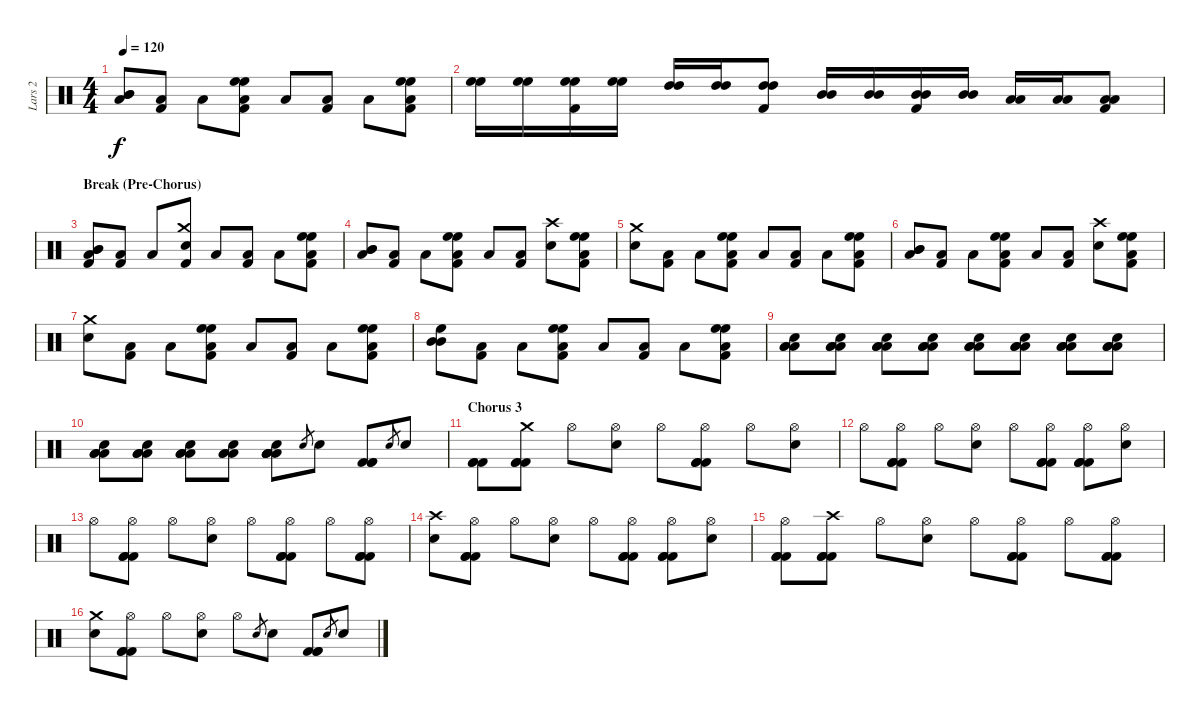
\track ("Lars 2" "Lars 2") {instrument percussion}
\staff {score}
\articulation defaults
\ts (4 4)
\tempo 120
\clef neutral
\ks c
("Mid Tom (hit)" "Low Tom (hit)" "Mid Tom (hit)").8{dy f} ("Low Tom (hit)" "Kick (hit) 2").8 "Low Tom (hit)".8 ("High Floor Tom (hit)" "Low Tom (hit)" "High Floor Tom (hit)" "Kick (hit) 2").8 "Low Tom (hit)".8 ("Low Tom (hit)" "Kick (hit) 2").8 "Low Tom (hit)".8 ("High Floor Tom (hit)" "Low Tom (hit)" "High Floor Tom (hit)" "Kick (hit) 2").8 |
("High Floor Tom (hit)" "High Floor Tom (hit)").16 ("High Floor Tom (hit)" "High Floor Tom (hit)").16 ("High Floor Tom (hit)" "High Floor Tom (hit)" "Kick (hit) 2").16 ("High Floor Tom (hit)" "High Floor Tom (hit)").16 ("High Tom (hit)" "High Tom (hit)").16 ("High Tom (hit)" "High Tom (hit)").16 ("High Tom (hit)" "High Tom (hit)" "Kick (hit) 2").8 ("Mid Tom (hit)" "Mid Tom (hit)").16 ("Mid Tom (hit)" "Mid Tom (hit)").16 ("Mid Tom (hit)" "Mid Tom (hit)" "Kick (hit) 2").16 ("Mid Tom (hit)" "Mid Tom (hit)").16 ("Low Tom (hit)" "Low Tom (hit)").16 ("Low Tom (hit)" "Low Tom (hit)").16 ("Low Floor Tom (hit)" "Low Floor Tom (hit)" "Kick (hit) 2").8 |
\section ("" "Break (Pre-Chorus)")
("Mid Tom (hit)" "Low Tom (hit)" "Mid Tom (hit)" "Kick (hit) 2").8 ("Low Tom (hit)" "Kick (hit) 2").8 "Low Tom (hit)".8 ("Crash medium (hit)" "Electric Snare (hit)" "Kick (hit) 2").8 "Low Tom (hit)".8 ("Low Tom (hit)" "Kick (hit) 2").8 "Low Tom (hit)".8 ("High Floor Tom (hit)" "Low Tom (hit)" "High Floor Tom (hit)" "Kick (hit) 2").8 |
("Mid Tom (hit)" "Low Tom (hit)" "Mid Tom (hit)").8 ("Low Tom (hit)" "Kick (hit) 2").8 "Low Tom (hit)".8 ("High Floor Tom (hit)" "Low Tom (hit)" "High Floor Tom (hit)" "Kick (hit) 2").8 "Low Tom (hit)".8 ("Low Tom (hit)" "Kick (hit) 2").8 ("Crash high (hit)" "Electric Snare (hit)").8 ("High Floor Tom (hit)" "Low Tom (hit)" "High Floor Tom (hit)" "Kick (hit) 2").8 |
("Crash medium (hit)" "Electric Snare (hit)").8 ("Low Tom (hit)" "Kick (hit) 2").8 "Low Tom (hit)".8 ("High Floor Tom (hit)" "Low Tom (hit)" "High Floor Tom (hit)" "Kick (hit) 2").8 "Low Tom (hit)".8 ("Low Tom (hit)" "Kick (hit) 2").8 "Low Tom (hit)".8 ("High Floor Tom (hit)" "Low Tom (hit)" "High Floor Tom (hit)" "Kick (hit) 2").8 |
("Mid Tom (hit)" "Low Tom (hit)" "Mid Tom (hit)").8 ("Low Tom (hit)" "Kick (hit) 2").8 "Low Tom (hit)".8 ("High Floor Tom (hit)" "Low Tom (hit)" "High Floor Tom (hit)" "Kick (hit) 2").8 "Low Tom (hit)".8 ("Low Tom (hit)" "Kick (hit) 2").8 ("Crash high (hit)" "Electric Snare (hit)").8 ("High Floor Tom (hit)" "Low Tom (hit)" "High Floor Tom (hit)" "Kick (hit) 2").8 |
("Crash medium (hit)" "Electric Snare (hit)").8 ("Low Tom (hit)" "Kick (hit) 2").8 "Low Tom (hit)".8 ("High Floor Tom (hit)" "Low Tom (hit)" "High Floor Tom (hit)" "Kick (hit) 2").8 "Low Tom (hit)".8 ("Low Tom (hit)" "Kick (hit) 2").8 "Low Tom (hit)".8 ("High Floor Tom (hit)" "Low Tom (hit)" "High Floor Tom (hit)" "Kick (hit) 2").8 |
("Mid Tom (hit)" "High Floor Tom (hit)" "Mid Tom (hit)").8 ("Low Tom (hit)" "Kick (hit) 2").8 "Low Tom (hit)".8 ("High Floor Tom (hit)" "Low Tom (hit)" "High Floor Tom (hit)" "Kick (hit) 2").8 "Low Tom (hit)".8 ("Low Tom (hit)" "Kick (hit) 2").8 "Low Tom (hit)".8 ("High Floor Tom (hit)" "Low Tom (hit)" "High Floor Tom (hit)" "Kick (hit) 2").8 |
("Low Tom (hit)" "Low Tom (hit)" "Low Tom (hit)" "Electric Snare (hit)").8{volume 8} ("Low Tom (hit)" "Low Tom (hit)" "Low Tom (hit)" "Electric Snare (hit)").8{volume 16} ("Low Tom (hit)" "Low Tom (hit)" "Low Tom (hit)" "Electric Snare (hit)").8 ("Low Tom (hit)" "Low Tom (hit)" "Low Tom (hit)" "Electric Snare (hit)").8 ("Low Tom (hit)" "Low Tom (hit)" "Low Tom (hit)" "Electric Snare (hit)").8 ("Low Tom (hit)" "Low Tom (hit)" "Low Tom (hit)" "Electric Snare (hit)").8 ("Low Tom (hit)" "Low Tom (hit)" "Low Tom (hit)" "Electric Snare (hit)").8 ("Low Tom (hit)" "Low Tom (hit)" "Low Tom (hit)" "Electric Snare (hit)").8 |
("Low Tom (hit)" "Low Tom (hit)" "Low Tom (hit)" "Electric Snare (hit)").8 ("Low Tom (hit)" "Low Tom (hit)" "Low Tom (hit)" "Electric Snare (hit)").8 ("Low Tom (hit)" "Low Tom (hit)" "Low Tom (hit)" "Electric Snare (hit)").8 ("Low Tom (hit)" "Low Tom (hit)" "Low Tom (hit)" "Electric Snare (hit)").8 ("Low Tom (hit)" "Low Tom (hit)" "Low Tom (hit)" "Electric Snare (hit)" "Low Tom (hit)" "Low Tom (hit)").8 "Electric Snare (hit)".8{gr} "Electric Snare (hit)".8 ("Kick (hit) 2" "Kick (hit) 2" "Kick (hit) 2").8 "Electric Snare (hit)".8{gr} "Electric Snare (hit)".8 |
\section ("" "Chorus 3")
("Kick (hit) 2" "Kick (hit) 2" "Kick (hit) 2").8 ("Crash medium (hit)" "Kick (hit) 2" "Kick (hit) 2" "Kick (hit) 2").8 "Hi-Hat (open)".8 ("Hi-Hat (open)" "Electric Snare (hit)").8 "Hi-Hat (open)".8 ("Hi-Hat (open)" "Kick (hit) 2" "Kick (hit) 2" "Kick (hit) 2").8 "Hi-Hat (open)".8 ("Hi-Hat (open)" "Electric Snare (hit)").8 |
"Hi-Hat (open)".8 ("Hi-Hat (open)" "Kick (hit) 2" "Kick (hit) 2" "Kick (hit) 2").8 "Hi-Hat (open)".8 ("Hi-Hat (open)" "Electric Snare (hit)").8 "Hi-Hat (open)".8 ("Hi-Hat (open)" "Kick (hit) 2" "Kick (hit) 2" "Kick (hit) 2").8 ("Hi-Hat (open)" "Kick (hit) 2" "Kick (hit) 2" "Kick (hit) 2").8 ("Hi-Hat (open)" "Electric Snare (hit)").8 |
"Hi-Hat (open)".8 ("Hi-Hat (open)" "Kick (hit) 2" "Kick (hit) 2" "Kick (hit) 2").8 "Hi-Hat (open)".8 ("Hi-Hat (open)" "Electric Snare (hit)").8 "Hi-Hat (open)".8 ("Hi-Hat (open)" "Kick (hit) 2" "Kick (hit) 2" "Kick (hit) 2").8 "Hi-Hat (open)".8 ("Hi-Hat (open)" "Kick (hit) 2" "Kick (hit) 2" "Kick (hit) 2").8 |
("Crash high (hit)" "Electric Snare (hit)").8 ("Hi-Hat (open)" "Kick (hit) 2" "Kick (hit) 2" "Kick (hit) 2").8 "Hi-Hat (open)".8 ("Hi-Hat (open)" "Electric Snare (hit)").8 "Hi-Hat (open)".8 ("Hi-Hat (open)" "Kick (hit) 2" "Kick (hit) 2" "Kick (hit) 2").8 ("Hi-Hat (open)" "Kick (hit) 2" "Kick (hit) 2" "Kick (hit) 2").8 ("Hi-Hat (open)" "Electric Snare (hit)").8 |
("Hi-Hat (open)" "Kick (hit) 2" "Kick (hit) 2" "Kick (hit) 2").8 ("Crash high (hit)" "Kick (hit) 2" "Kick (hit) 2" "Kick (hit) 2").8 "Hi-Hat (open)".8 ("Hi-Hat (open)" "Electric Snare (hit)").8 "Hi-Hat (open)".8 ("Hi-Hat (open)" "Kick (hit) 2" "Kick (hit) 2" "Kick (hit) 2").8 "Hi-Hat (open)".8 ("Hi-Hat (open)" "Kick (hit) 2" "Kick (hit) 2" "Kick (hit) 2").8 |
("Crash medium (hit)" "Electric Snare (hit)").8 ("Hi-Hat (open)" "Kick (hit) 2" "Kick (hit) 2" "Kick (hit) 2").8 "Hi-Hat (open)".8 ("Hi-Hat (open)" "Electric Snare (hit)").8 "Hi-Hat (open)".8 "Electric Snare (hit)".8{gr} "Electric Snare (hit)".8 ("Kick (hit) 2" "Kick (hit) 2" "Kick (hit) 2").8 "Electric Snare (hit)".8{gr} "Electric Snare (hit)".8
